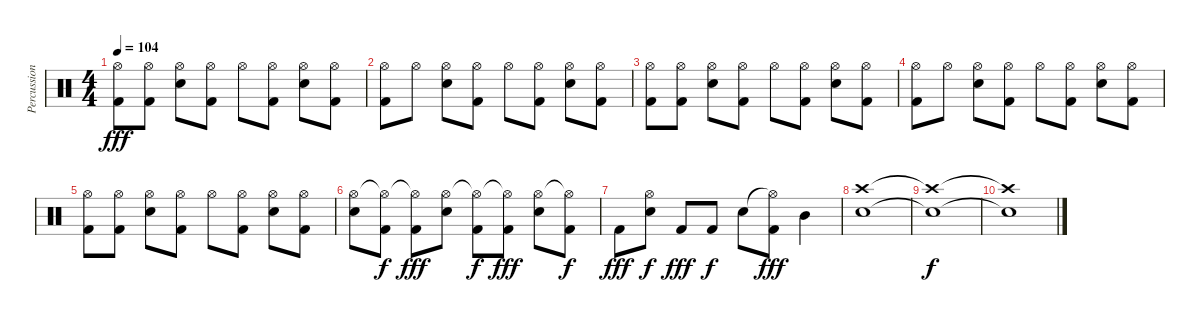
\track ("Percussion" "Percussion") {instrument percussion}
\staff {score}
\articulation defaults
\ts (4 4)
\tempo 104
\clef neutral
\ks c
("Hi-Hat (open)" "Kick (hit) 2").8{dy fff} ("Hi-Hat (open)" "Kick (hit) 2").8 ("Hi-Hat (open)" "Electric Snare (hit)").8 ("Hi-Hat (open)" "Kick (hit) 2").8 "Hi-Hat (open)".8 ("Hi-Hat (open)" "Kick (hit) 2").8 ("Hi-Hat (open)" "Electric Snare (hit)").8 ("Hi-Hat (open)" "Kick (hit) 2").8 |
("Hi-Hat (open)" "Kick (hit) 2").8 "Hi-Hat (open)".8 ("Hi-Hat (open)" "Electric Snare (hit)").8 ("Hi-Hat (open)" "Kick (hit) 2").8 "Hi-Hat (open)".8 ("Hi-Hat (open)" "Kick (hit) 2").8 ("Hi-Hat (open)" "Electric Snare (hit)").8 ("Hi-Hat (open)" "Kick (hit) 2").8 |
("Hi-Hat (open)" "Kick (hit) 2").8 ("Hi-Hat (open)" "Kick (hit) 2").8 ("Hi-Hat (open)" "Electric Snare (hit)").8 ("Hi-Hat (open)" "Kick (hit) 2").8 "Hi-Hat (open)".8 ("Hi-Hat (open)" "Kick (hit) 2").8 ("Hi-Hat (open)" "Electric Snare (hit)").8 ("Hi-Hat (open)" "Kick (hit) 2").8 |
("Hi-Hat (open)" "Kick (hit) 2").8 "Hi-Hat (open)".8 ("Hi-Hat (open)" "Electric Snare (hit)").8 ("Hi-Hat (open)" "Kick (hit) 2").8 "Hi-Hat (open)".8 ("Hi-Hat (open)" "Kick (hit) 2").8 ("Hi-Hat (open)" "Electric Snare (hit)").8 ("Hi-Hat (open)" "Kick (hit) 2").8 |
("Hi-Hat (open)" "Kick (hit) 2").8 ("Hi-Hat (open)" "Kick (hit) 2").8 ("Hi-Hat (open)" "Electric Snare (hit)").8 ("Hi-Hat (open)" "Kick (hit) 2").8 "Hi-Hat (open)".8 ("Hi-Hat (open)" "Kick (hit) 2").8 ("Hi-Hat (open)" "Electric Snare (hit)").8 ("Hi-Hat (open)" "Kick (hit) 2").8 |
("Hi-Hat (open)" "Electric Snare (hit)").8 ("Hi-Hat (open)"{t} "Kick (hit) 2").8{dy f} ("Hi-Hat (open)"{t} "Kick (hit) 2").8{dy fff} ("Hi-Hat (open)" "Electric Snare (hit)").8 ("Hi-Hat (open)"{t} "Kick (hit) 2").8{dy f} ("Hi-Hat (open)"{t} "Kick (hit) 2").8{dy fff} ("Hi-Hat (open)" "Electric Snare (hit)").8 ("Hi-Hat (open)"{t} "Kick (hit) 2").8{dy f} |
"Kick (hit) 2".8{dy fff} ("Hi-Hat (open)" "Electric Snare (hit)").8{dy f} "Kick (hit) 2".8{dy fff} "Kick (hit) 2".8{dy f} "Electric Snare (hit)".8 ("Hi-Hat (open)"{t} "Kick (hit) 2").8{dy fff} "Mid Tom (hit)".4 |
("Crash high (hit)" "Electric Snare (hit)").1 |
("Crash high (hit)"{t} "Electric Snare (hit)"{t}).1{dy f} |
("Crash high (hit)"{t} "Electric Snare (hit)"{t}).1
